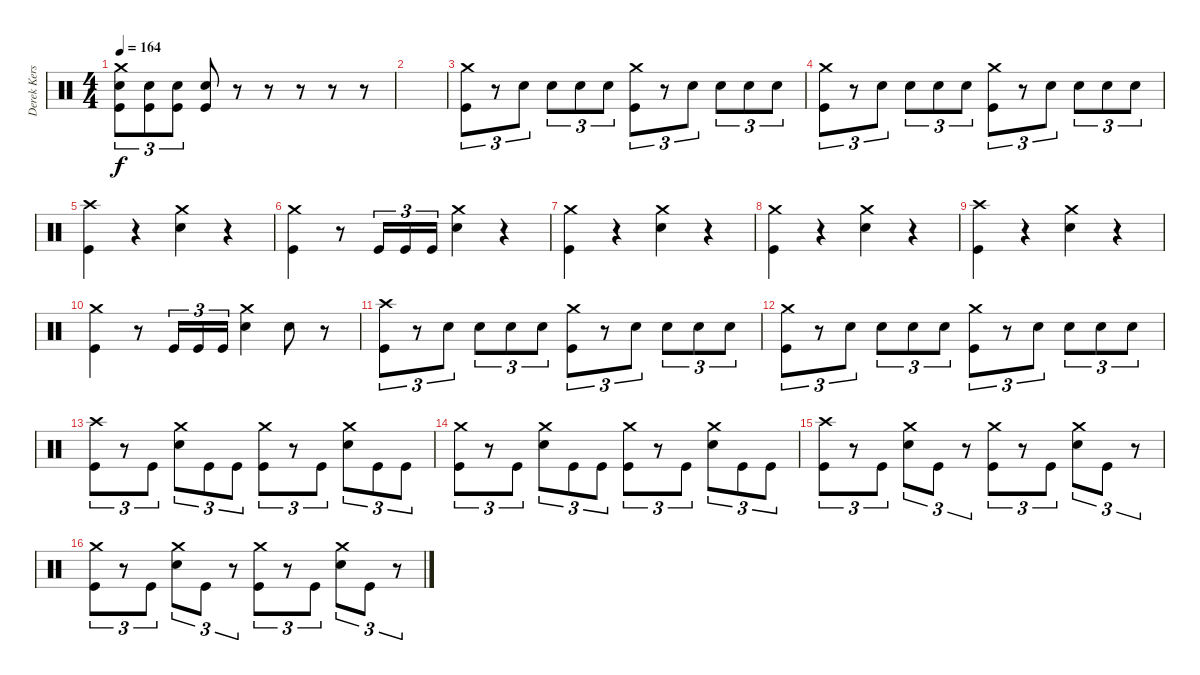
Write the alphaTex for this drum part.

\track ("Derek Kerswill" "Derek Kers") {instrument percussion}
\staff {score}
\articulation defaults
\ts (4 4)
\tempo 164
\clef neutral
\ks c
("Crash medium (hit)" "Kick (hit)" "Snare (hit) 2").8{tu (3 2) dy f} ("Kick (hit)" "Snare (hit) 2").8{tu (3 2)} ("Kick (hit)" "Snare (hit) 2").8{tu (3 2)} ("Kick (hit)" "Snare (hit) 2").8 r.8 r.8 r.8 r.8 r.8 |
|
("Crash medium (hit)" "Kick (hit)").8{tu (3 2)} r.8{tu (3 2)} "Snare (hit) 2".8{tu (3 2)} "Snare (hit) 2".8{tu (3 2)} "Snare (hit) 2".8{tu (3 2)} "Snare (hit) 2".8{tu (3 2)} ("Crash medium (hit)" "Kick (hit)").8{tu (3 2)} r.8{tu (3 2)} "Snare (hit) 2".8{tu (3 2)} "Snare (hit) 2".8{tu (3 2)} "Snare (hit) 2".8{tu (3 2)} "Snare (hit) 2".8{tu (3 2)} |
("Crash medium (hit)" "Kick (hit)").8{tu (3 2)} r.8{tu (3 2)} "Snare (hit) 2".8{tu (3 2)} "Snare (hit) 2".8{tu (3 2)} "Snare (hit) 2".8{tu (3 2)} "Snare (hit) 2".8{tu (3 2)} ("Crash medium (hit)" "Kick (hit)").8{tu (3 2)} r.8{tu (3 2)} "Snare (hit) 2".8{tu (3 2)} "Snare (hit) 2".8{tu (3 2)} "Snare (hit) 2".8{tu (3 2)} "Snare (hit) 2".8{tu (3 2)} |
("Crash high (hit)" "Kick (hit)").4 r.4 ("Crash medium (hit)" "Snare (hit) 2").4 r.4 |
("Crash medium (hit)" "Kick (hit)").4 r.8 "Kick (hit)".16{tu (3 2)} "Kick (hit)".16{tu (3 2)} "Kick (hit)".16{tu (3 2)} ("Crash medium (hit)" "Snare (hit) 2").4 r.4 |
("Crash medium (hit)" "Kick (hit)").4 r.4 ("Crash medium (hit)" "Snare (hit) 2").4 r.4 |
("Crash medium (hit)" "Kick (hit)").4 r.4 ("Crash medium (hit)" "Snare (hit) 2").4 r.4 |
("Crash high (hit)" "Kick (hit)").4 r.4 ("Crash medium (hit)" "Snare (hit) 2").4 r.4 |
("Crash medium (hit)" "Kick (hit)").4 r.8 "Kick (hit)".16{tu (3 2)} "Kick (hit)".16{tu (3 2)} "Kick (hit)".16{tu (3 2)} ("Crash medium (hit)" "Snare (hit) 2").4 "Snare (hit) 2".8 r.8 |
("Crash high (hit)" "Kick (hit)").8{tu (3 2)} r.8{tu (3 2)} "Snare (hit) 2".8{tu (3 2)} "Snare (hit) 2".8{tu (3 2)} "Snare (hit) 2".8{tu (3 2)} "Snare (hit) 2".8{tu (3 2)} ("Crash medium (hit)" "Kick (hit)").8{tu (3 2)} r.8{tu (3 2)} "Snare (hit) 2".8{tu (3 2)} "Snare (hit) 2".8{tu (3 2)} "Snare (hit) 2".8{tu (3 2)} "Snare (hit) 2".8{tu (3 2)} |
("Crash medium (hit)" "Kick (hit)").8{tu (3 2)} r.8{tu (3 2)} "Snare (hit) 2".8{tu (3 2)} "Snare (hit) 2".8{tu (3 2)} "Snare (hit) 2".8{tu (3 2)} "Snare (hit) 2".8{tu (3 2)} ("Crash medium (hit)" "Kick (hit)").8{tu (3 2)} r.8{tu (3 2)} "Snare (hit) 2".8{tu (3 2)} "Snare (hit) 2".8{tu (3 2)} "Snare (hit) 2".8{tu (3 2)} "Snare (hit) 2".8{tu (3 2)} |
("Crash high (hit)" "Kick (hit)").8{tu (3 2)} r.8{tu (3 2)} "Kick (hit)".8{tu (3 2)} ("Crash medium (hit)" "Snare (hit) 2").8{tu (3 2)} "Kick (hit)".8{tu (3 2)} "Kick (hit)".8{tu (3 2)} ("Crash medium (hit)" "Kick (hit)").8{tu (3 2)} r.8{tu (3 2)} "Kick (hit)".8{tu (3 2)} ("Crash medium (hit)" "Snare (hit) 2").8{tu (3 2)} "Kick (hit)".8{tu (3 2)} "Kick (hit)".8{tu (3 2)} |
("Crash medium (hit)" "Kick (hit)").8{tu (3 2)} r.8{tu (3 2)} "Kick (hit)".8{tu (3 2)} ("Crash medium (hit)" "Snare (hit) 2").8{tu (3 2)} "Kick (hit)".8{tu (3 2)} "Kick (hit)".8{tu (3 2)} ("Crash medium (hit)" "Kick (hit)").8{tu (3 2)} r.8{tu (3 2)} "Kick (hit)".8{tu (3 2)} ("Crash medium (hit)" "Snare (hit) 2").8{tu (3 2)} "Kick (hit)".8{tu (3 2)} "Kick (hit)".8{tu (3 2)} |
("Crash high (hit)" "Kick (hit)").8{tu (3 2)} r.8{tu (3 2)} "Kick (hit)".8{tu (3 2)} ("Crash medium (hit)" "Snare (hit) 2").8{tu (3 2)} "Kick (hit)".8{tu (3 2)} r.8{tu (3 2)} ("Crash medium (hit)" "Kick (hit)").8{tu (3 2)} r.8{tu (3 2)} "Kick (hit)".8{tu (3 2)} ("Crash medium (hit)" "Snare (hit) 2").8{tu (3 2)} "Kick (hit)".8{tu (3 2)} r.8{tu (3 2)} |
("Crash medium (hit)" "Kick (hit)").8{tu (3 2)} r.8{tu (3 2)} "Kick (hit)".8{tu (3 2)} ("Crash medium (hit)" "Snare (hit) 2").8{tu (3 2)} "Kick (hit)".8{tu (3 2)} r.8{tu (3 2)} ("Crash medium (hit)" "Kick (hit)").8{tu (3 2)} r.8{tu (3 2)} "Kick (hit)".8{tu (3 2)} ("Crash medium (hit)" "Snare (hit) 2").8{tu (3 2)} "Kick (hit)".8{tu (3 2)} r.8{tu (3 2)}
